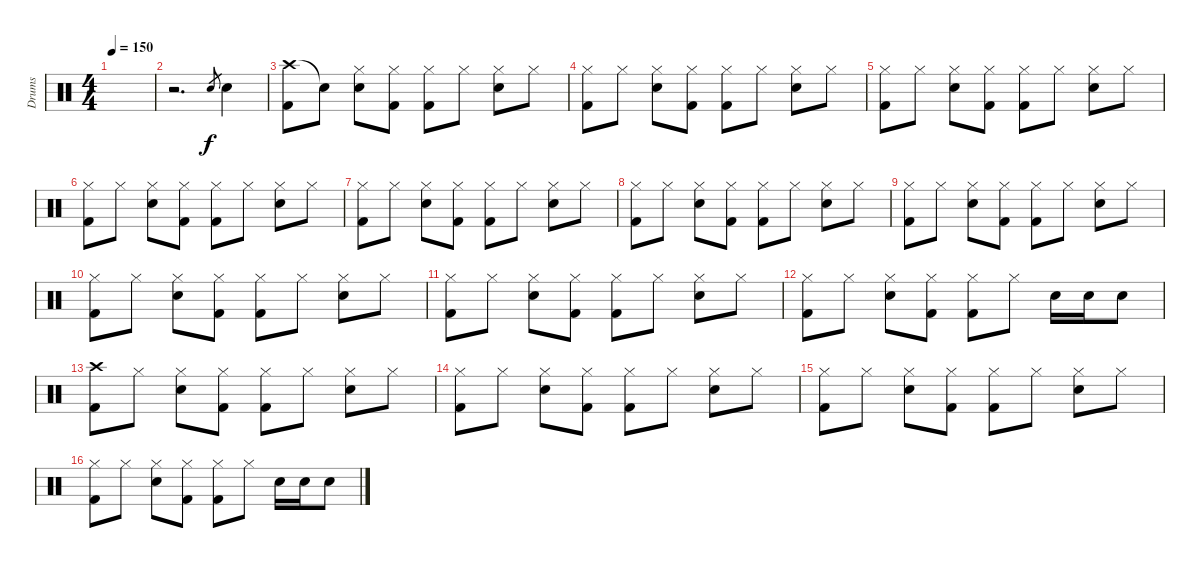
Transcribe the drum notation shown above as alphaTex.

\track ("Drums" "Drums") {instrument percussion}
\staff {score}
\articulation defaults
\ts (4 4)
\tempo 150
\clef neutral
\ks c
|
r.2{d} "Snare (hit) 2"{h}.8{gr} "Snare (hit) 2".4 |
("Crash high (hit)" "Kick (hit) 2").8 "Snare (hit)"{t}.8 ("Hi-Hat (closed)" "Snare (hit) 2").8 ("Hi-Hat (closed)" "Kick (hit) 2").8 ("Hi-Hat (closed)" "Kick (hit) 2").8 "Hi-Hat (closed)".8 ("Hi-Hat (closed)" "Snare (hit) 2").8 "Hi-Hat (closed)".8 |
("Hi-Hat (closed)" "Kick (hit) 2").8 "Hi-Hat (closed)".8 ("Hi-Hat (closed)" "Snare (hit) 2").8 ("Hi-Hat (closed)" "Kick (hit) 2").8 ("Hi-Hat (closed)" "Kick (hit) 2").8 "Hi-Hat (closed)".8 ("Hi-Hat (closed)" "Snare (hit) 2").8 "Hi-Hat (closed)".8 |
("Hi-Hat (closed)" "Kick (hit) 2").8 "Hi-Hat (closed)".8 ("Hi-Hat (closed)" "Snare (hit) 2").8 ("Hi-Hat (closed)" "Kick (hit) 2").8 ("Hi-Hat (closed)" "Kick (hit) 2").8 "Hi-Hat (closed)".8 ("Hi-Hat (closed)" "Snare (hit) 2").8 "Hi-Hat (closed)".8 |
("Hi-Hat (closed)" "Kick (hit) 2").8 "Hi-Hat (closed)".8 ("Hi-Hat (closed)" "Snare (hit) 2").8 ("Hi-Hat (closed)" "Kick (hit) 2").8 ("Hi-Hat (closed)" "Kick (hit) 2").8 "Hi-Hat (closed)".8 ("Hi-Hat (closed)" "Snare (hit) 2").8 "Hi-Hat (closed)".8 |
("Hi-Hat (closed)" "Kick (hit) 2").8 "Hi-Hat (closed)".8 ("Hi-Hat (closed)" "Snare (hit) 2").8 ("Hi-Hat (closed)" "Kick (hit) 2").8 ("Hi-Hat (closed)" "Kick (hit) 2").8 "Hi-Hat (closed)".8 ("Hi-Hat (closed)" "Snare (hit) 2").8 "Hi-Hat (closed)".8 |
("Hi-Hat (closed)" "Kick (hit) 2").8 "Hi-Hat (closed)".8 ("Hi-Hat (closed)" "Snare (hit) 2").8 ("Hi-Hat (closed)" "Kick (hit) 2").8 ("Hi-Hat (closed)" "Kick (hit) 2").8 "Hi-Hat (closed)".8 ("Hi-Hat (closed)" "Snare (hit) 2").8 "Hi-Hat (closed)".8 |
("Hi-Hat (closed)" "Kick (hit) 2").8 "Hi-Hat (closed)".8 ("Hi-Hat (closed)" "Snare (hit) 2").8 ("Hi-Hat (closed)" "Kick (hit) 2").8 ("Hi-Hat (closed)" "Kick (hit) 2").8 "Hi-Hat (closed)".8 ("Hi-Hat (closed)" "Snare (hit) 2").8 "Hi-Hat (closed)".8 |
("Hi-Hat (closed)" "Kick (hit) 2").8 "Hi-Hat (closed)".8 ("Hi-Hat (closed)" "Snare (hit) 2").8 ("Hi-Hat (closed)" "Kick (hit) 2").8 ("Hi-Hat (closed)" "Kick (hit) 2").8 "Hi-Hat (closed)".8 ("Hi-Hat (closed)" "Snare (hit) 2").8 "Hi-Hat (closed)".8 |
("Hi-Hat (closed)" "Kick (hit) 2").8 "Hi-Hat (closed)".8 ("Hi-Hat (closed)" "Snare (hit) 2").8 ("Hi-Hat (closed)" "Kick (hit) 2").8 ("Hi-Hat (closed)" "Kick (hit) 2").8 "Hi-Hat (closed)".8 ("Hi-Hat (closed)" "Snare (hit) 2").8 "Hi-Hat (closed)".8 |
("Hi-Hat (closed)" "Kick (hit) 2").8 "Hi-Hat (closed)".8 ("Hi-Hat (closed)" "Snare (hit) 2").8 ("Hi-Hat (closed)" "Kick (hit) 2").8 ("Hi-Hat (closed)" "Kick (hit) 2").8 "Hi-Hat (closed)".8 "Snare (hit) 2".16 "Snare (hit) 2".16 "Snare (hit) 2".8 |
("Crash high (hit)" "Kick (hit) 2").8 "Hi-Hat (closed)".8 ("Hi-Hat (closed)" "Snare (hit) 2").8 ("Hi-Hat (closed)" "Kick (hit) 2").8 ("Hi-Hat (closed)" "Kick (hit) 2").8 "Hi-Hat (closed)".8 ("Hi-Hat (closed)" "Snare (hit) 2").8 "Hi-Hat (closed)".8 |
("Hi-Hat (closed)" "Kick (hit) 2").8 "Hi-Hat (closed)".8 ("Hi-Hat (closed)" "Snare (hit) 2").8 ("Hi-Hat (closed)" "Kick (hit) 2").8 ("Hi-Hat (closed)" "Kick (hit) 2").8 "Hi-Hat (closed)".8 ("Hi-Hat (closed)" "Snare (hit) 2").8 "Hi-Hat (closed)".8 |
("Hi-Hat (closed)" "Kick (hit) 2").8 "Hi-Hat (closed)".8 ("Hi-Hat (closed)" "Snare (hit) 2").8 ("Hi-Hat (closed)" "Kick (hit) 2").8 ("Hi-Hat (closed)" "Kick (hit) 2").8 "Hi-Hat (closed)".8 ("Hi-Hat (closed)" "Snare (hit) 2").8 "Hi-Hat (closed)".8 |
("Hi-Hat (closed)" "Kick (hit) 2").8 "Hi-Hat (closed)".8 ("Hi-Hat (closed)" "Snare (hit) 2").8 ("Hi-Hat (closed)" "Kick (hit) 2").8 ("Hi-Hat (closed)" "Kick (hit) 2").8 "Hi-Hat (closed)".8 "Snare (hit) 2".16 "Snare (hit) 2".16 "Snare (hit) 2".8
